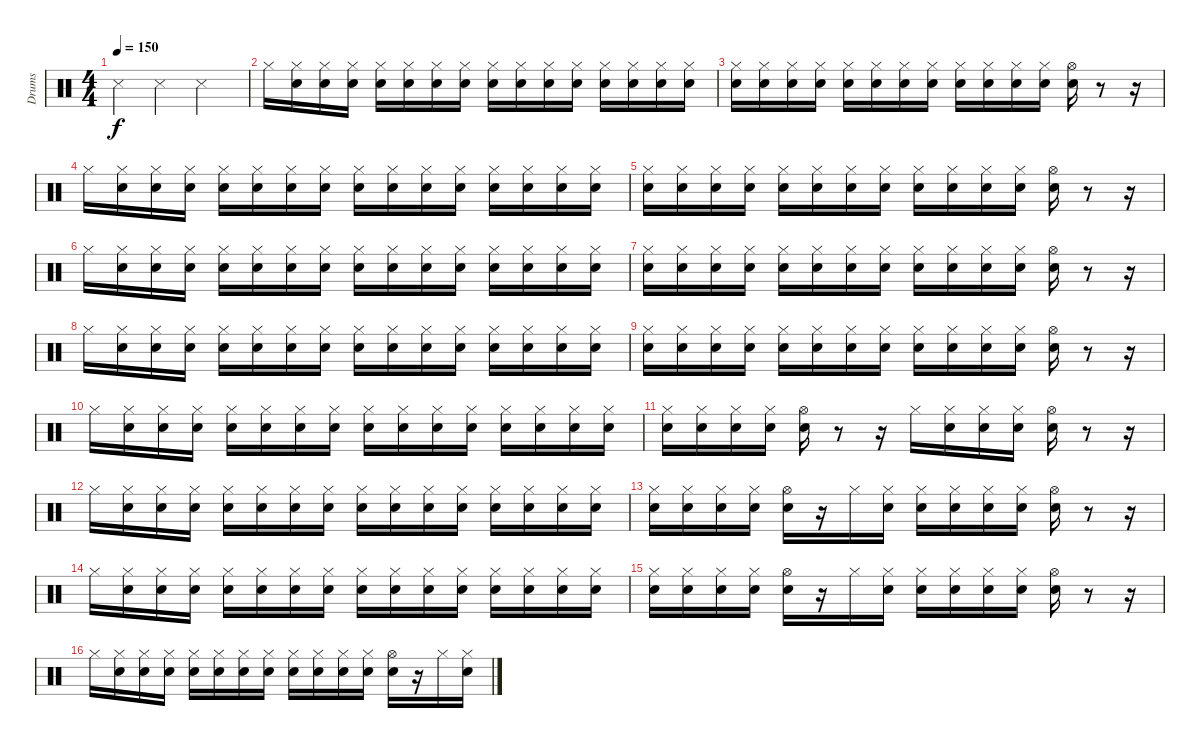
\track ("Drums" "Drums") {instrument percussion}
\staff {score}
\articulation defaults
\ts (4 4)
\tempo 150
\clef neutral
\ks c "Metronome (hit)".4{dy f} "Metronome (hit)".4 "Metronome (hit)".2
|
"Hi-Hat (closed)".16 ("Snare (hit)" "Hi-Hat (closed)").16 ("Snare (hit)" "Hi-Hat (closed)").16 ("Snare (hit)" "Hi-Hat (closed)").16 ("Snare (hit)" "Hi-Hat (closed)").16 ("Snare (hit)" "Hi-Hat (closed)").16 ("Snare (hit)" "Hi-Hat (closed)").16 ("Snare (hit)" "Hi-Hat (closed)").16 ("Snare (hit)" "Hi-Hat (closed)").16 ("Snare (hit)" "Hi-Hat (closed)").16 ("Snare (hit)" "Hi-Hat (closed)").16 ("Snare (hit)" "Hi-Hat (closed)").16 ("Snare (hit)" "Hi-Hat (closed)").16 ("Snare (hit)" "Hi-Hat (closed)").16 ("Snare (hit)" "Hi-Hat (closed)").16 ("Snare (hit)" "Hi-Hat (closed)").16 |
("Snare (hit)" "Hi-Hat (closed)").16 ("Snare (hit)" "Hi-Hat (closed)").16 ("Snare (hit)" "Hi-Hat (closed)").16 ("Snare (hit)" "Hi-Hat (closed)").16 ("Snare (hit)" "Hi-Hat (closed)").16 ("Snare (hit)" "Hi-Hat (closed)").16 ("Snare (hit)" "Hi-Hat (closed)").16 ("Snare (hit)" "Hi-Hat (closed)").16 ("Snare (hit)" "Hi-Hat (closed)").16 ("Snare (hit)" "Hi-Hat (closed)").16 ("Snare (hit)" "Hi-Hat (closed)").16 ("Snare (hit)" "Hi-Hat (closed)").16 ("Snare (hit)" "Hi-Hat (open)").16 r.8 r.16 |
"Hi-Hat (closed)".16 ("Snare (hit)" "Hi-Hat (closed)").16 ("Snare (hit)" "Hi-Hat (closed)").16 ("Snare (hit)" "Hi-Hat (closed)").16 ("Snare (hit)" "Hi-Hat (closed)").16 ("Snare (hit)" "Hi-Hat (closed)").16 ("Snare (hit)" "Hi-Hat (closed)").16 ("Snare (hit)" "Hi-Hat (closed)").16 ("Snare (hit)" "Hi-Hat (closed)").16 ("Snare (hit)" "Hi-Hat (closed)").16 ("Snare (hit)" "Hi-Hat (closed)").16 ("Snare (hit)" "Hi-Hat (closed)").16 ("Snare (hit)" "Hi-Hat (closed)").16 ("Snare (hit)" "Hi-Hat (closed)").16 ("Snare (hit)" "Hi-Hat (closed)").16 ("Snare (hit)" "Hi-Hat (closed)").16 |
("Snare (hit)" "Hi-Hat (closed)").16 ("Snare (hit)" "Hi-Hat (closed)").16 ("Snare (hit)" "Hi-Hat (closed)").16 ("Snare (hit)" "Hi-Hat (closed)").16 ("Snare (hit)" "Hi-Hat (closed)").16 ("Snare (hit)" "Hi-Hat (closed)").16 ("Snare (hit)" "Hi-Hat (closed)").16 ("Snare (hit)" "Hi-Hat (closed)").16 ("Snare (hit)" "Hi-Hat (closed)").16 ("Snare (hit)" "Hi-Hat (closed)").16 ("Snare (hit)" "Hi-Hat (closed)").16 ("Snare (hit)" "Hi-Hat (closed)").16 ("Snare (hit)" "Hi-Hat (open)").16 r.8 r.16 |
"Hi-Hat (closed)".16 ("Snare (hit)" "Hi-Hat (closed)").16 ("Snare (hit)" "Hi-Hat (closed)").16 ("Snare (hit)" "Hi-Hat (closed)").16 ("Snare (hit)" "Hi-Hat (closed)").16 ("Snare (hit)" "Hi-Hat (closed)").16 ("Snare (hit)" "Hi-Hat (closed)").16 ("Snare (hit)" "Hi-Hat (closed)").16 ("Snare (hit)" "Hi-Hat (closed)").16 ("Snare (hit)" "Hi-Hat (closed)").16 ("Snare (hit)" "Hi-Hat (closed)").16 ("Snare (hit)" "Hi-Hat (closed)").16 ("Snare (hit)" "Hi-Hat (closed)").16 ("Snare (hit)" "Hi-Hat (closed)").16 ("Snare (hit)" "Hi-Hat (closed)").16 ("Snare (hit)" "Hi-Hat (closed)").16 |
("Snare (hit)" "Hi-Hat (closed)").16 ("Snare (hit)" "Hi-Hat (closed)").16 ("Snare (hit)" "Hi-Hat (closed)").16 ("Snare (hit)" "Hi-Hat (closed)").16 ("Snare (hit)" "Hi-Hat (closed)").16 ("Snare (hit)" "Hi-Hat (closed)").16 ("Snare (hit)" "Hi-Hat (closed)").16 ("Snare (hit)" "Hi-Hat (closed)").16 ("Snare (hit)" "Hi-Hat (closed)").16 ("Snare (hit)" "Hi-Hat (closed)").16 ("Snare (hit)" "Hi-Hat (closed)").16 ("Snare (hit)" "Hi-Hat (closed)").16 ("Snare (hit)" "Hi-Hat (open)").16 r.8 r.16 |
"Hi-Hat (closed)".16 ("Snare (hit)" "Hi-Hat (closed)").16 ("Snare (hit)" "Hi-Hat (closed)").16 ("Snare (hit)" "Hi-Hat (closed)").16 ("Snare (hit)" "Hi-Hat (closed)").16 ("Snare (hit)" "Hi-Hat (closed)").16 ("Snare (hit)" "Hi-Hat (closed)").16 ("Snare (hit)" "Hi-Hat (closed)").16 ("Snare (hit)" "Hi-Hat (closed)").16 ("Snare (hit)" "Hi-Hat (closed)").16 ("Snare (hit)" "Hi-Hat (closed)").16 ("Snare (hit)" "Hi-Hat (closed)").16 ("Snare (hit)" "Hi-Hat (closed)").16 ("Snare (hit)" "Hi-Hat (closed)").16 ("Snare (hit)" "Hi-Hat (closed)").16 ("Snare (hit)" "Hi-Hat (closed)").16 |
("Snare (hit)" "Hi-Hat (closed)").16 ("Snare (hit)" "Hi-Hat (closed)").16 ("Snare (hit)" "Hi-Hat (closed)").16 ("Snare (hit)" "Hi-Hat (closed)").16 ("Snare (hit)" "Hi-Hat (closed)").16 ("Snare (hit)" "Hi-Hat (closed)").16 ("Snare (hit)" "Hi-Hat (closed)").16 ("Snare (hit)" "Hi-Hat (closed)").16 ("Snare (hit)" "Hi-Hat (closed)").16 ("Snare (hit)" "Hi-Hat (closed)").16 ("Snare (hit)" "Hi-Hat (closed)").16 ("Snare (hit)" "Hi-Hat (closed)").16 ("Snare (hit)" "Hi-Hat (open)").16 r.8 r.16 |
"Hi-Hat (closed)".16 ("Snare (hit)" "Hi-Hat (closed)").16 ("Snare (hit)" "Hi-Hat (closed)").16 ("Snare (hit)" "Hi-Hat (closed)").16 ("Snare (hit)" "Hi-Hat (closed)").16 ("Snare (hit)" "Hi-Hat (closed)").16 ("Snare (hit)" "Hi-Hat (closed)").16 ("Snare (hit)" "Hi-Hat (closed)").16 ("Snare (hit)" "Hi-Hat (closed)").16 ("Snare (hit)" "Hi-Hat (closed)").16 ("Snare (hit)" "Hi-Hat (closed)").16 ("Snare (hit)" "Hi-Hat (closed)").16 ("Snare (hit)" "Hi-Hat (closed)").16 ("Snare (hit)" "Hi-Hat (closed)").16 ("Snare (hit)" "Hi-Hat (closed)").16 ("Snare (hit)" "Hi-Hat (closed)").16 |
("Snare (hit)" "Hi-Hat (closed)").16 ("Snare (hit)" "Hi-Hat (closed)").16 ("Snare (hit)" "Hi-Hat (closed)").16 ("Snare (hit)" "Hi-Hat (closed)").16 ("Snare (hit)" "Hi-Hat (open)").16 r.8 r.16 "Hi-Hat (closed)".16 ("Snare (hit)" "Hi-Hat (closed)").16 ("Snare (hit)" "Hi-Hat (closed)").16 ("Snare (hit)" "Hi-Hat (closed)").16 ("Snare (hit)" "Hi-Hat (open)").16 r.8 r.16 |
"Hi-Hat (closed)".16 ("Snare (hit)" "Hi-Hat (closed)").16 ("Snare (hit)" "Hi-Hat (closed)").16 ("Snare (hit)" "Hi-Hat (closed)").16 ("Snare (hit)" "Hi-Hat (closed)").16 ("Snare (hit)" "Hi-Hat (closed)").16 ("Snare (hit)" "Hi-Hat (closed)").16 ("Snare (hit)" "Hi-Hat (closed)").16 ("Snare (hit)" "Hi-Hat (closed)").16 ("Snare (hit)" "Hi-Hat (closed)").16 ("Snare (hit)" "Hi-Hat (closed)").16 ("Snare (hit)" "Hi-Hat (closed)").16 ("Snare (hit)" "Hi-Hat (closed)").16 ("Snare (hit)" "Hi-Hat (closed)").16 ("Snare (hit)" "Hi-Hat (closed)").16 ("Snare (hit)" "Hi-Hat (closed)").16 |
("Snare (hit)" "Hi-Hat (closed)").16 ("Snare (hit)" "Hi-Hat (closed)").16 ("Snare (hit)" "Hi-Hat (closed)").16 ("Snare (hit)" "Hi-Hat (closed)").16 ("Snare (hit)" "Hi-Hat (open)").16 r.16 "Hi-Hat (closed)".16 ("Snare (hit)" "Hi-Hat (closed)").16 ("Snare (hit)" "Hi-Hat (closed)").16 ("Snare (hit)" "Hi-Hat (closed)").16 ("Snare (hit)" "Hi-Hat (closed)").16 ("Snare (hit)" "Hi-Hat (closed)").16 ("Snare (hit)" "Hi-Hat (open)").16 r.8 r.16 |
"Hi-Hat (closed)".16 ("Snare (hit)" "Hi-Hat (closed)").16 ("Snare (hit)" "Hi-Hat (closed)").16 ("Snare (hit)" "Hi-Hat (closed)").16 ("Snare (hit)" "Hi-Hat (closed)").16 ("Snare (hit)" "Hi-Hat (closed)").16 ("Snare (hit)" "Hi-Hat (closed)").16 ("Snare (hit)" "Hi-Hat (closed)").16 ("Snare (hit)" "Hi-Hat (closed)").16 ("Snare (hit)" "Hi-Hat (closed)").16 ("Snare (hit)" "Hi-Hat (closed)").16 ("Snare (hit)" "Hi-Hat (closed)").16 ("Snare (hit)" "Hi-Hat (closed)").16 ("Snare (hit)" "Hi-Hat (closed)").16 ("Snare (hit)" "Hi-Hat (closed)").16 ("Snare (hit)" "Hi-Hat (closed)").16 |
("Snare (hit)" "Hi-Hat (closed)").16 ("Snare (hit)" "Hi-Hat (closed)").16 ("Snare (hit)" "Hi-Hat (closed)").16 ("Snare (hit)" "Hi-Hat (closed)").16 ("Snare (hit)" "Hi-Hat (open)").16 r.16 "Hi-Hat (closed)".16 ("Snare (hit)" "Hi-Hat (closed)").16 ("Snare (hit)" "Hi-Hat (closed)").16 ("Snare (hit)" "Hi-Hat (closed)").16 ("Snare (hit)" "Hi-Hat (closed)").16 ("Snare (hit)" "Hi-Hat (closed)").16 ("Snare (hit)" "Hi-Hat (open)").16 r.8 r.16 |
"Hi-Hat (closed)".16 ("Snare (hit)" "Hi-Hat (closed)").16 ("Snare (hit)" "Hi-Hat (closed)").16 ("Snare (hit)" "Hi-Hat (closed)").16 ("Snare (hit)" "Hi-Hat (closed)").16 ("Snare (hit)" "Hi-Hat (closed)").16 ("Snare (hit)" "Hi-Hat (closed)").16 ("Snare (hit)" "Hi-Hat (closed)").16 ("Snare (hit)" "Hi-Hat (closed)").16 ("Snare (hit)" "Hi-Hat (closed)").16 ("Snare (hit)" "Hi-Hat (closed)").16 ("Snare (hit)" "Hi-Hat (closed)").16 ("Snare (hit)" "Hi-Hat (open)").16 r.16 "Hi-Hat (closed)".16 ("Snare (hit)" "Hi-Hat (closed)").16
